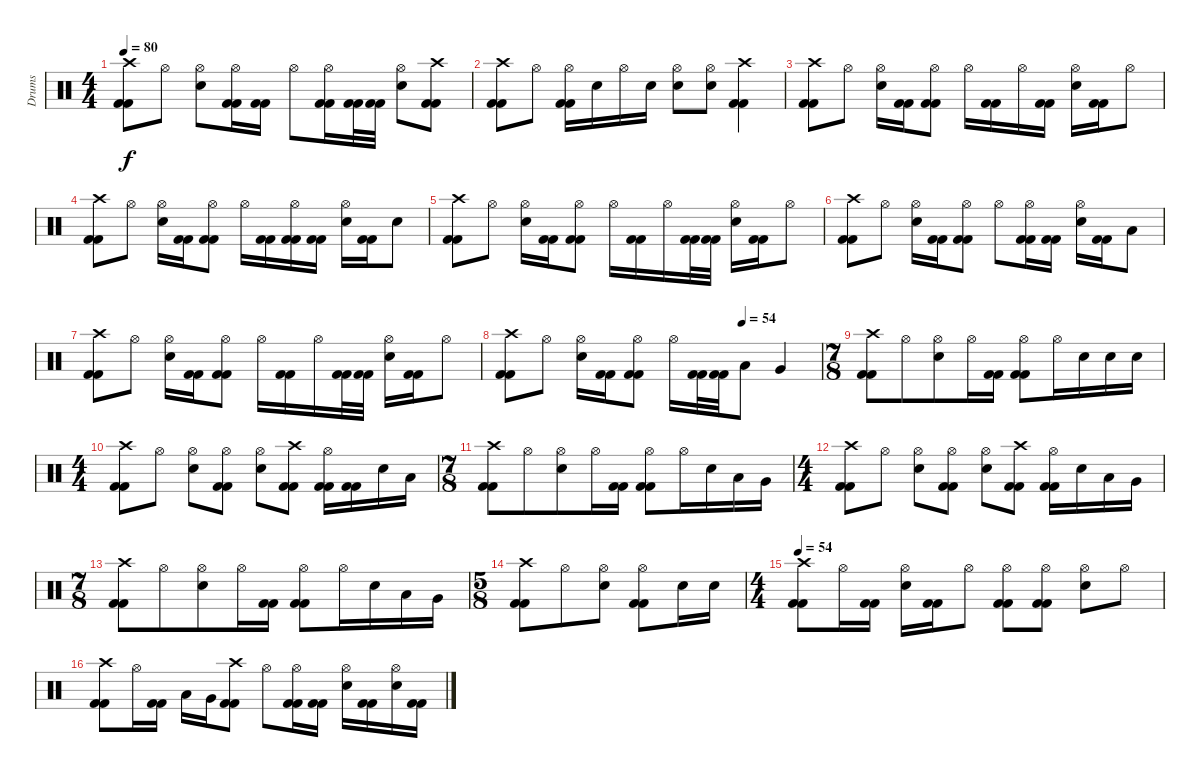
\track ("Drums" "Drums") {instrument percussion}
\staff {score}
\articulation defaults
\ts (4 4)
\tempo 80
\clef neutral
\ks c
("Kick (hit) 2" "Kick (hit) 2" "Crash high (hit)").8{dy f} "Hi-Hat (open)".8 ("Snare (hit) 2" "Hi-Hat (open)").8 ("Kick (hit) 2" "Kick (hit) 2" "Hi-Hat (open)").16 ("Kick (hit) 2" "Kick (hit) 2").16 "Hi-Hat (open)".8 ("Kick (hit) 2" "Kick (hit) 2" "Hi-Hat (open)").16 ("Kick (hit) 2" "Kick (hit) 2").32 ("Kick (hit) 2" "Kick (hit) 2").32 ("Snare (hit) 2" "Hi-Hat (open)").8 ("Kick (hit) 2" "Kick (hit) 2" "Crash high (hit)").8 |
("Kick (hit) 2" "Kick (hit) 2" "Crash high (hit)").8 "Hi-Hat (open)".8 ("Kick (hit) 2" "Kick (hit) 2" "Hi-Hat (open)").16 "Snare (hit) 2".16 "Hi-Hat (open)".16 "Snare (hit) 2".16 ("Snare (hit) 2" "Hi-Hat (open)").8 ("Snare (hit) 2" "Hi-Hat (open)").8 ("Kick (hit) 2" "Kick (hit) 2" "Crash high (hit)").4 |
("Kick (hit) 2" "Kick (hit) 2" "Crash high (hit)").8 "Hi-Hat (open)".8 ("Snare (hit) 2" "Hi-Hat (open)").16 ("Kick (hit) 2" "Kick (hit) 2").16 ("Kick (hit) 2" "Kick (hit) 2" "Hi-Hat (open)").8 "Hi-Hat (open)".16 ("Kick (hit) 2" "Kick (hit) 2").16 "Hi-Hat (open)".16 ("Kick (hit) 2" "Kick (hit) 2").16 ("Snare (hit) 2" "Hi-Hat (open)").16 ("Kick (hit) 2" "Kick (hit) 2").16 "Hi-Hat (open)".8 |
("Kick (hit) 2" "Kick (hit) 2" "Crash high (hit)").8 "Hi-Hat (open)".8 ("Snare (hit) 2" "Hi-Hat (open)").16 ("Kick (hit) 2" "Kick (hit) 2").16 ("Kick (hit) 2" "Kick (hit) 2" "Hi-Hat (open)").8 "Hi-Hat (open)".16 ("Kick (hit) 2" "Kick (hit) 2").16 ("Kick (hit) 2" "Kick (hit) 2" "Hi-Hat (open)").16 ("Kick (hit) 2" "Kick (hit) 2").16 ("Snare (hit) 2" "Hi-Hat (open)").16 ("Kick (hit) 2" "Kick (hit) 2").16 "Snare (hit) 2".8 |
("Kick (hit) 2" "Kick (hit) 2" "Crash high (hit)").8 "Hi-Hat (open)".8 ("Snare (hit) 2" "Hi-Hat (open)").16 ("Kick (hit) 2" "Kick (hit) 2").16 ("Kick (hit) 2" "Kick (hit) 2" "Hi-Hat (open)").8 "Hi-Hat (open)".16 ("Kick (hit) 2" "Kick (hit) 2").16 "Hi-Hat (open)".16 ("Kick (hit) 2" "Kick (hit) 2").32 ("Kick (hit) 2" "Kick (hit) 2").32 ("Snare (hit) 2" "Hi-Hat (open)").16 ("Kick (hit) 2" "Kick (hit) 2").16 "Hi-Hat (open)".8 |
("Kick (hit) 2" "Kick (hit) 2" "Crash high (hit)").8 "Hi-Hat (open)".8 ("Snare (hit) 2" "Hi-Hat (open)").16 ("Kick (hit) 2" "Kick (hit) 2").16 ("Kick (hit) 2" "Kick (hit) 2" "Hi-Hat (open)").8 "Hi-Hat (open)".8 ("Kick (hit) 2" "Kick (hit) 2" "Hi-Hat (open)").16 ("Kick (hit) 2" "Kick (hit) 2").16 ("Snare (hit) 2" "Hi-Hat (open)").16 ("Kick (hit) 2" "Kick (hit) 2").16 "Low Tom (hit)".8 |
("Kick (hit) 2" "Kick (hit) 2" "Crash high (hit)").8 "Hi-Hat (open)".8 ("Snare (hit) 2" "Hi-Hat (open)").16 ("Kick (hit) 2" "Kick (hit) 2").16 ("Kick (hit) 2" "Kick (hit) 2" "Hi-Hat (open)").8 "Hi-Hat (open)".16 ("Kick (hit) 2" "Kick (hit) 2").16 "Hi-Hat (open)".16 ("Kick (hit) 2" "Kick (hit) 2").32 ("Kick (hit) 2" "Kick (hit) 2").32 ("Snare (hit) 2" "Hi-Hat (open)").16 ("Kick (hit) 2" "Kick (hit) 2").16 "Hi-Hat (open)".8 |
\tempo (54 0.75)
("Kick (hit) 2" "Kick (hit) 2" "Crash high (hit)").8 "Hi-Hat (open)".8 ("Snare (hit) 2" "Hi-Hat (open)").16 ("Kick (hit) 2" "Kick (hit) 2").16 ("Kick (hit) 2" "Kick (hit) 2" "Hi-Hat (open)").8 "Hi-Hat (open)".16 ("Kick (hit) 2" "Kick (hit) 2").32 ("Kick (hit) 2" "Kick (hit) 2").32 "Low Tom (hit)".8 "Very Low Tom (hit)".4 |
\ts (7 8)
("Kick (hit) 2" "Kick (hit) 2" "Crash high (hit)").8 "Hi-Hat (open)".8 ("Snare (hit) 2" "Hi-Hat (open)").8 "Hi-Hat (open)".16 ("Kick (hit) 2" "Kick (hit) 2").16 ("Kick (hit) 2" "Kick (hit) 2" "Hi-Hat (open)").8 "Hi-Hat (open)".16 "Snare (hit) 2".16 "Snare (hit) 2".16 "Snare (hit) 2".16 |
\ts (4 4)
("Kick (hit) 2" "Kick (hit) 2" "Crash high (hit)").8 "Hi-Hat (open)".8 ("Snare (hit) 2" "Hi-Hat (open)").8 ("Kick (hit) 2" "Kick (hit) 2" "Hi-Hat (open)").8 ("Snare (hit) 2" "Hi-Hat (open)").8 ("Kick (hit) 2" "Kick (hit) 2" "Crash high (hit)").8 ("Kick (hit) 2" "Kick (hit) 2" "Hi-Hat (open)").16 ("Kick (hit) 2" "Kick (hit) 2").16 "Snare (hit) 2".16 "Low Tom (hit)".16 |
\ts (7 8)
("Kick (hit) 2" "Kick (hit) 2" "Crash high (hit)").8 "Hi-Hat (open)".8 ("Snare (hit) 2" "Hi-Hat (open)").8 "Hi-Hat (open)".16 ("Kick (hit) 2" "Kick (hit) 2").16 ("Kick (hit) 2" "Kick (hit) 2" "Hi-Hat (open)").8 "Hi-Hat (open)".16 "Snare (hit) 2".16 "Low Tom (hit)".16 "Very Low Tom (hit)".16 |
\ts (4 4)
("Kick (hit) 2" "Kick (hit) 2" "Crash high (hit)").8 "Hi-Hat (open)".8 ("Snare (hit) 2" "Hi-Hat (open)").8 ("Kick (hit) 2" "Kick (hit) 2" "Hi-Hat (open)").8 ("Snare (hit) 2" "Hi-Hat (open)").8 ("Kick (hit) 2" "Kick (hit) 2" "Crash high (hit)").8 ("Kick (hit) 2" "Kick (hit) 2" "Hi-Hat (open)").16 "Snare (hit) 2".16 "Low Tom (hit)".16 "Very Low Tom (hit)".16 |
\ts (7 8)
("Kick (hit) 2" "Kick (hit) 2" "Crash high (hit)").8 "Hi-Hat (open)".8 ("Snare (hit) 2" "Hi-Hat (open)").8 "Hi-Hat (open)".16 ("Kick (hit) 2" "Kick (hit) 2").16 ("Kick (hit) 2" "Kick (hit) 2" "Hi-Hat (open)").8 "Hi-Hat (open)".16 "Snare (hit) 2".16 "Low Tom (hit)".16 "Very Low Tom (hit)".16 |
\ts (5 8)
("Kick (hit) 2" "Kick (hit) 2" "Crash high (hit)").8 "Hi-Hat (open)".8 ("Snare (hit) 2" "Hi-Hat (open)").8 ("Kick (hit) 2" "Kick (hit) 2" "Hi-Hat (open)").8 "Snare (hit) 2".16 "Snare (hit) 2".16 |
\ts (4 4)
\tempo 54
("Kick (hit) 2" "Kick (hit) 2" "Crash high (hit)").8 "Hi-Hat (open)".16 ("Kick (hit) 2" "Kick (hit) 2").16 ("Snare (hit) 2" "Hi-Hat (open)").16 ("Kick (hit) 2" "Kick (hit) 2").16 "Hi-Hat (open)".8 ("Kick (hit) 2" "Kick (hit) 2" "Hi-Hat (open)").8 ("Kick (hit) 2" "Kick (hit) 2" "Hi-Hat (open)").8 ("Snare (hit) 2" "Hi-Hat (open)").8 "Hi-Hat (open)".8 |
("Kick (hit) 2" "Kick (hit) 2" "Crash high (hit)").8 "Hi-Hat (open)".16 ("Kick (hit) 2" "Kick (hit) 2").16 "Low Tom (hit)".16 "Very Low Tom (hit)".16 ("Kick (hit) 2" "Kick (hit) 2" "Crash high (hit)").8 "Hi-Hat (open)".8 ("Kick (hit) 2" "Kick (hit) 2" "Hi-Hat (open)").16 ("Kick (hit) 2" "Kick (hit) 2").16 ("Snare (hit) 2" "Hi-Hat (open)").16 ("Kick (hit) 2" "Kick (hit) 2").16 ("Snare (hit) 2" "Hi-Hat (open)").16 ("Kick (hit) 2" "Kick (hit) 2").16
